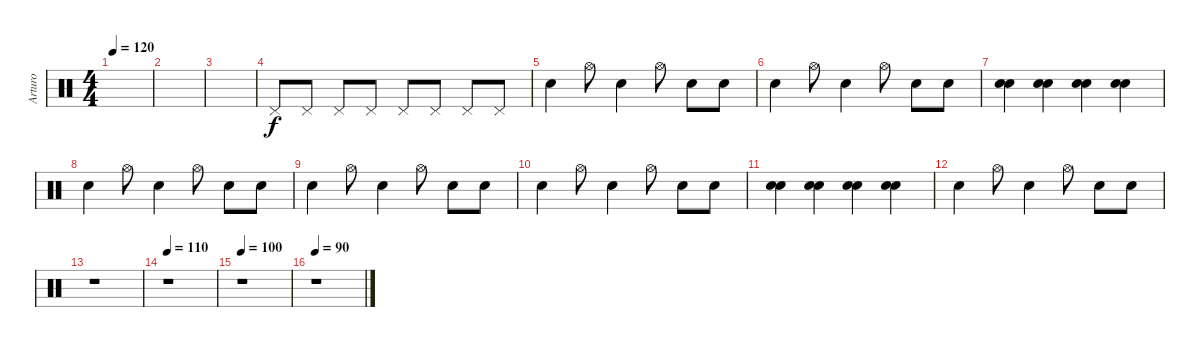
\track ("Arturo" "Arturo") {instrument percussion}
\staff {score}
\articulation defaults
\ts (4 4)
\tempo 120
\clef neutral
\ks c
|
|
|
"Pedal Hi-Hat (hit)".8 "Pedal Hi-Hat (hit)".8 "Pedal Hi-Hat (hit)".8 "Pedal Hi-Hat (hit)".8 "Pedal Hi-Hat (hit)".8 "Pedal Hi-Hat (hit)".8 "Pedal Hi-Hat (hit)".8 "Pedal Hi-Hat (hit)".8 |
"Snare (hit) 2".4 "Hi-Hat (open)".8 "Snare (hit) 2".4 "Hi-Hat (open)".8 "Electric Snare (hit)".8 "Electric Snare (hit)".8 |
"Snare (hit) 2".4 "Hi-Hat (open)".8 "Snare (hit) 2".4 "Hi-Hat (open)".8 "Electric Snare (hit)".8 "Electric Snare (hit)".8 |
("Snare (hit) 2" "Electric Snare (hit)").4 ("Electric Snare (hit)" "Snare (hit) 2").4 ("Snare (hit) 2" "Electric Snare (hit)").4 ("Electric Snare (hit)" "Snare (hit) 2").4 |
"Snare (hit) 2".4 "Hi-Hat (open)".8 "Snare (hit) 2".4 "Hi-Hat (open)".8 "Electric Snare (hit)".8 "Electric Snare (hit)".8 |
"Snare (hit) 2".4 "Hi-Hat (open)".8 "Snare (hit) 2".4 "Hi-Hat (open)".8 "Electric Snare (hit)".8 "Electric Snare (hit)".8 |
"Snare (hit) 2".4 "Hi-Hat (open)".8 "Snare (hit) 2".4 "Hi-Hat (open)".8 "Electric Snare (hit)".8 "Electric Snare (hit)".8 |
("Snare (hit) 2" "Electric Snare (hit)").4 ("Electric Snare (hit)" "Snare (hit) 2").4 ("Snare (hit) 2" "Electric Snare (hit)").4 ("Electric Snare (hit)" "Snare (hit) 2").4 |
"Snare (hit) 2".4 "Hi-Hat (open)".8 "Snare (hit) 2".4 "Hi-Hat (open)".8 "Electric Snare (hit)".8 "Electric Snare (hit)".8 |
r.1 |
\tempo 110
r.1 |
\tempo 100
r.1 |
\tempo 90
r.1
